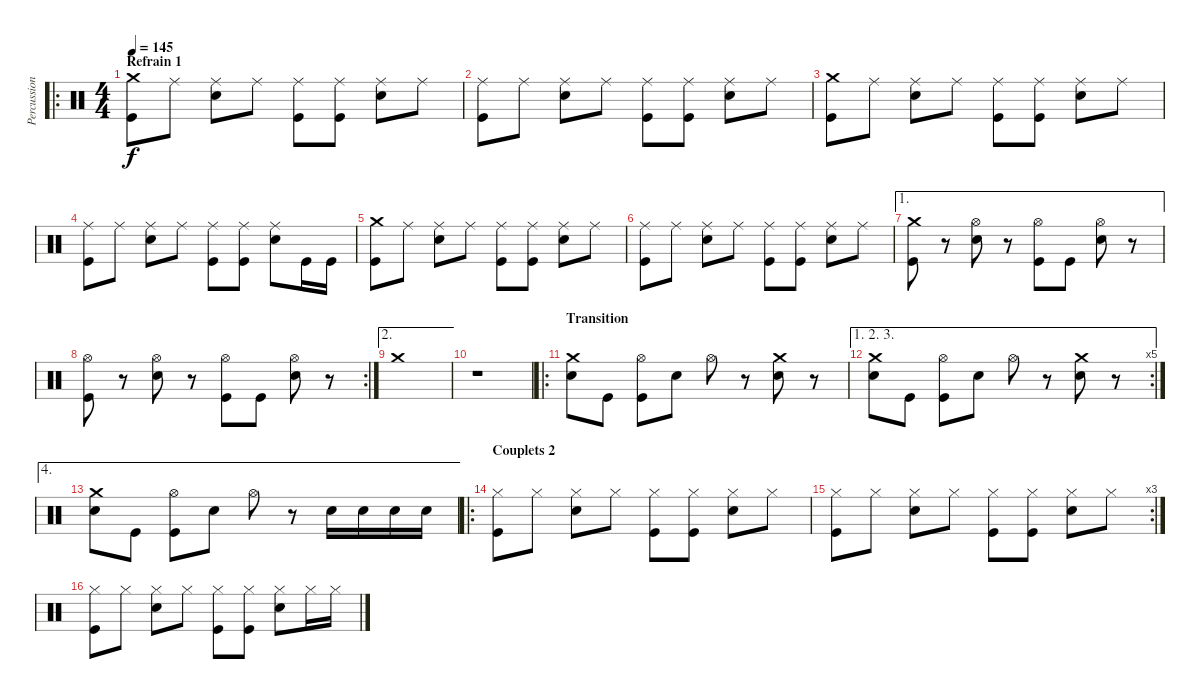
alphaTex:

\track ("Percussions" "Percussion") {instrument percussion}
\staff {score}
\articulation defaults
\ro
\ts (4 4)
\section ("" "Refrain 1")
\tempo 145
\clef neutral
\ks c
("Crash medium (hit)" "Kick (hit)").8{dy f} "Ride (middle)".8 ("Ride (middle)" "Electric Snare (hit)").8 "Ride (middle)".8 ("Ride (middle)" "Kick (hit)").8 ("Ride (middle)" "Kick (hit)").8 ("Ride (middle)" "Electric Snare (hit)").8 "Ride (middle)".8 |
("Ride (middle)" "Kick (hit)").8 "Ride (middle)".8 ("Ride (middle)" "Electric Snare (hit)").8 "Ride (middle)".8 ("Ride (middle)" "Kick (hit)").8 ("Ride (middle)" "Kick (hit)").8 ("Ride (middle)" "Electric Snare (hit)").8 "Ride (middle)".8 |
("Crash medium (hit)" "Kick (hit)").8 "Ride (middle)".8 ("Ride (middle)" "Electric Snare (hit)").8 "Ride (middle)".8 ("Ride (middle)" "Kick (hit)").8 ("Ride (middle)" "Kick (hit)").8 ("Ride (middle)" "Electric Snare (hit)").8 "Ride (middle)".8 |
("Ride (middle)" "Kick (hit)").8 "Ride (middle)".8 ("Ride (middle)" "Electric Snare (hit)").8 "Ride (middle)".8 ("Ride (middle)" "Kick (hit)").8 ("Ride (middle)" "Kick (hit)").8 ("Ride (middle)" "Electric Snare (hit)").8 "Kick (hit)".16 "Kick (hit)".16 |
("Crash medium (hit)" "Kick (hit)").8 "Ride (middle)".8 ("Ride (middle)" "Electric Snare (hit)").8 "Ride (middle)".8 ("Ride (middle)" "Kick (hit)").8 ("Ride (middle)" "Kick (hit)").8 ("Ride (middle)" "Electric Snare (hit)").8 "Ride (middle)".8 |
("Ride (middle)" "Kick (hit)").8 "Ride (middle)".8 ("Ride (middle)" "Electric Snare (hit)").8 "Ride (middle)".8 ("Ride (middle)" "Kick (hit)").8 ("Ride (middle)" "Kick (hit)").8 ("Ride (middle)" "Electric Snare (hit)").8 "Ride (middle)".8 |
\ae 1
("Crash medium (hit)" "Kick (hit)").8 r.8 ("Hi-Hat (open)" "Electric Snare (hit)").8 r.8 ("Hi-Hat (open)" "Kick (hit)").8 "Kick (hit)".8 ("Hi-Hat (open)" "Electric Snare (hit)").8 r.8 |
\rc 2
("Hi-Hat (open)" "Kick (hit)").8 r.8 ("Hi-Hat (open)" "Electric Snare (hit)").8 r.8 ("Hi-Hat (open)" "Kick (hit)").8 "Kick (hit)".8 ("Hi-Hat (open)" "Electric Snare (hit)").8 r.8 |
\ae 2 "Crash medium (hit)".1
|
r.1 |
\ro
\section ("" "Transition")
("Crash medium (hit)" "Electric Snare (hit)").8 "Kick (hit)".8 ("Hi-Hat (open)" "Kick (hit)").8 "Electric Snare (hit)".8 "Hi-Hat (open)".8 r.8 ("Crash medium (hit)" "Electric Snare (hit)").8 r.8 |
\ae (1 2 3)
\rc 5
("Crash medium (hit)" "Electric Snare (hit)").8 "Kick (hit)".8 ("Hi-Hat (open)" "Kick (hit)").8 "Electric Snare (hit)".8 "Hi-Hat (open)".8 r.8 ("Crash medium (hit)" "Electric Snare (hit)").8 r.8 |
\ae 4
("Crash medium (hit)" "Electric Snare (hit)").8 "Kick (hit)".8 ("Hi-Hat (open)" "Kick (hit)").8 "Electric Snare (hit)".8 "Hi-Hat (open)".8 r.8 "Electric Snare (hit)".16 "Electric Snare (hit)".16 "Electric Snare (hit)".16 "Electric Snare (hit)".16 |
\ro
\section ("" "Couplets 2")
("Hi-Hat (closed)" "Kick (hit)").8 "Hi-Hat (closed)".8 ("Hi-Hat (closed)" "Electric Snare (hit)").8 "Hi-Hat (closed)".8 ("Hi-Hat (closed)" "Kick (hit)").8 ("Hi-Hat (closed)" "Kick (hit)").8 ("Hi-Hat (closed)" "Electric Snare (hit)").8 "Hi-Hat (closed)".8 |
\rc 3
("Hi-Hat (closed)" "Kick (hit)").8 "Hi-Hat (closed)".8 ("Hi-Hat (closed)" "Electric Snare (hit)").8 "Hi-Hat (closed)".8 ("Hi-Hat (closed)" "Kick (hit)").8 ("Hi-Hat (closed)" "Kick (hit)").8 ("Hi-Hat (closed)" "Electric Snare (hit)").8 "Hi-Hat (closed)".8 |
("Hi-Hat (closed)" "Kick (hit)").8 "Hi-Hat (closed)".8 ("Hi-Hat (closed)" "Electric Snare (hit)").8 "Hi-Hat (closed)".8 ("Hi-Hat (closed)" "Kick (hit)").8 ("Hi-Hat (closed)" "Kick (hit)").8 ("Hi-Hat (closed)" "Electric Snare (hit)").8 "Hi-Hat (closed)".16 "Hi-Hat (closed)".16
